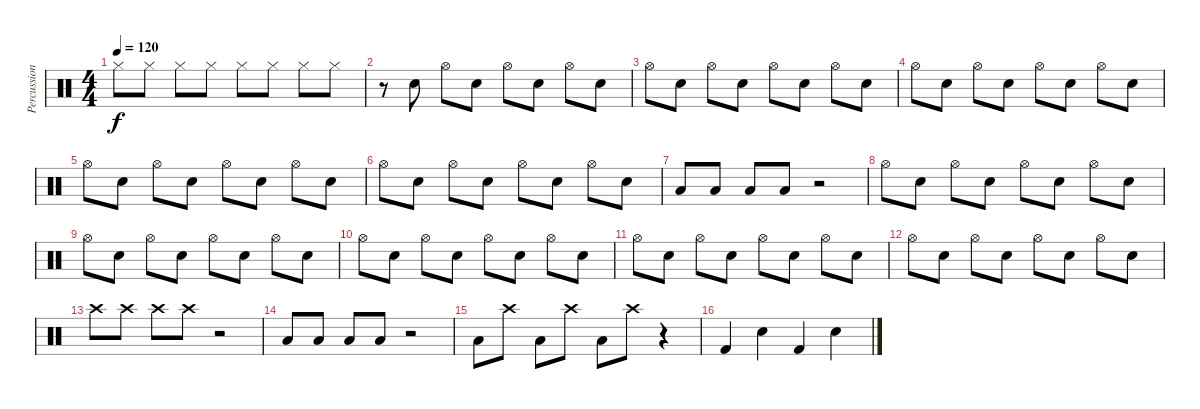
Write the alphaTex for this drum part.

\track ("Percussions" "Percussion") {instrument percussion}
\staff {score}
\articulation defaults
\ts (4 4)
\tempo 120
\clef neutral
\ks c "Hi-Hat (closed)".8{dy f} "Hi-Hat (closed)".8 "Hi-Hat (closed)".8 "Hi-Hat (closed)".8 "Hi-Hat (closed)".8 "Hi-Hat (closed)".8 "Hi-Hat (closed)".8 "Hi-Hat (closed)".8
|
r.8 "Electric Snare (hit)".8 "Hi-Hat (open)".8 "Electric Snare (hit)".8 "Hi-Hat (open)".8 "Electric Snare (hit)".8 "Hi-Hat (open)".8 "Electric Snare (hit)".8 |
"Hi-Hat (open)".8 "Electric Snare (hit)".8 "Hi-Hat (open)".8 "Electric Snare (hit)".8 "Hi-Hat (open)".8 "Electric Snare (hit)".8 "Hi-Hat (open)".8 "Electric Snare (hit)".8 |
"Hi-Hat (open)".8 "Electric Snare (hit)".8 "Hi-Hat (open)".8 "Electric Snare (hit)".8 "Hi-Hat (open)".8 "Electric Snare (hit)".8 "Hi-Hat (open)".8 "Electric Snare (hit)".8 |
"Hi-Hat (open)".8 "Electric Snare (hit)".8 "Hi-Hat (open)".8 "Electric Snare (hit)".8 "Hi-Hat (open)".8 "Electric Snare (hit)".8 "Hi-Hat (open)".8 "Electric Snare (hit)".8 |
"Hi-Hat (open)".8 "Electric Snare (hit)".8 "Hi-Hat (open)".8 "Electric Snare (hit)".8 "Hi-Hat (open)".8 "Electric Snare (hit)".8 "Hi-Hat (open)".8 "Electric Snare (hit)".8 |
"Low Floor Tom (hit)".8 "Low Floor Tom (hit)".8 "Low Floor Tom (hit)".8 "Low Floor Tom (hit)".8 r.2 |
"Hi-Hat (open)".8 "Electric Snare (hit)".8 "Hi-Hat (open)".8 "Electric Snare (hit)".8 "Hi-Hat (open)".8 "Electric Snare (hit)".8 "Hi-Hat (open)".8 "Electric Snare (hit)".8 |
"Hi-Hat (open)".8 "Electric Snare (hit)".8 "Hi-Hat (open)".8 "Electric Snare (hit)".8 "Hi-Hat (open)".8 "Electric Snare (hit)".8 "Hi-Hat (open)".8 "Electric Snare (hit)".8 |
"Hi-Hat (open)".8 "Electric Snare (hit)".8 "Hi-Hat (open)".8 "Electric Snare (hit)".8 "Hi-Hat (open)".8 "Electric Snare (hit)".8 "Hi-Hat (open)".8 "Electric Snare (hit)".8 |
"Hi-Hat (open)".8 "Electric Snare (hit)".8 "Hi-Hat (open)".8 "Electric Snare (hit)".8 "Hi-Hat (open)".8 "Electric Snare (hit)".8 "Hi-Hat (open)".8 "Electric Snare (hit)".8 |
"Hi-Hat (open)".8 "Electric Snare (hit)".8 "Hi-Hat (open)".8 "Electric Snare (hit)".8 "Hi-Hat (open)".8 "Electric Snare (hit)".8 "Hi-Hat (open)".8 "Electric Snare (hit)".8 |
"Crash high (hit)".8 "Crash high (hit)".8 "Crash high (hit)".8 "Crash high (hit)".8 r.2 |
"Low Floor Tom (hit)".8 "Low Floor Tom (hit)".8 "Low Floor Tom (hit)".8 "Low Floor Tom (hit)".8 r.2 |
"Low Floor Tom (hit)".8 "Crash high (hit)".8 "Low Floor Tom (hit)".8 "Crash high (hit)".8 "Low Floor Tom (hit)".8 "Crash high (hit)".8 r.4 |
"Kick (hit) 2".4 "Electric Snare (hit)".4 "Kick (hit) 2".4 "Electric Snare (hit)".4
